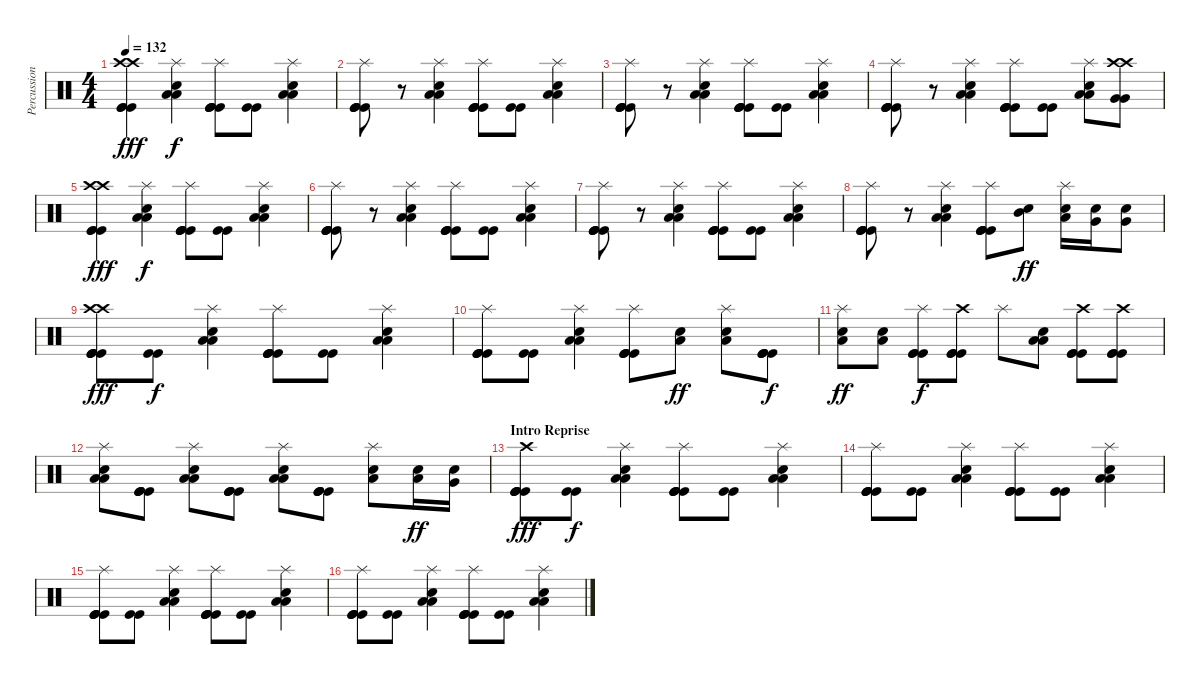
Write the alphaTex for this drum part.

\track ("Percussion" "Percussion") {instrument percussion}
\staff {score}
\articulation defaults
\ts (4 4)
\tempo 132
\clef neutral
\ks c
("Crash high (hit)" "Crash high (hit)" "Kick (hit)" "Kick (hit)" "Kick (hit)").4{dy fff} ("Splash (hit)" "Low Tom (hit)" "Low Tom (hit)" "Electric Snare (hit)").4{dy f} ("Splash (hit)" "Kick (hit)" "Kick (hit)" "Kick (hit)" "Kick (hit)").8 ("Kick (hit)" "Kick (hit)").8 ("Splash (hit)" "Low Tom (hit)" "Low Tom (hit)" "Electric Snare (hit)").4 |
("Splash (hit)" "Kick (hit)" "Kick (hit)" "Kick (hit)" "Kick (hit)").8 r.8 ("Splash (hit)" "Low Tom (hit)" "Low Tom (hit)" "Electric Snare (hit)").4 ("Splash (hit)" "Kick (hit)" "Kick (hit)" "Kick (hit)" "Kick (hit)").8 ("Kick (hit)" "Kick (hit)").8 ("Splash (hit)" "Low Tom (hit)" "Low Tom (hit)" "Electric Snare (hit)").4 |
("Splash (hit)" "Kick (hit)" "Kick (hit)" "Kick (hit)" "Kick (hit)").8 r.8 ("Splash (hit)" "Low Tom (hit)" "Low Tom (hit)" "Electric Snare (hit)").4 ("Splash (hit)" "Kick (hit)" "Kick (hit)" "Kick (hit)" "Kick (hit)").8 ("Kick (hit)" "Kick (hit)").8 ("Splash (hit)" "Low Tom (hit)" "Low Tom (hit)" "Electric Snare (hit)").4 |
("Splash (hit)" "Kick (hit)" "Kick (hit)" "Kick (hit)" "Kick (hit)").8 r.8 ("Splash (hit)" "Low Tom (hit)" "Low Tom (hit)" "Electric Snare (hit)").4 ("Splash (hit)" "Kick (hit)" "Kick (hit)" "Kick (hit)" "Kick (hit)").8 ("Kick (hit)" "Kick (hit)").8 ("Splash (hit)" "Low Tom (hit)" "Low Tom (hit)" "Electric Snare (hit)").8 ("Crash high (hit)" "Crash high (hit)" "Very Low Tom (hit)" "Very Low Tom (hit)").8 |
("Crash high (hit)" "Crash high (hit)" "Kick (hit)" "Kick (hit)" "Kick (hit)").4{dy fff} ("Splash (hit)" "Low Tom (hit)" "Low Tom (hit)" "Electric Snare (hit)").4{dy f} ("Splash (hit)" "Kick (hit)" "Kick (hit)" "Kick (hit)" "Kick (hit)").8 ("Kick (hit)" "Kick (hit)").8 ("Splash (hit)" "Low Tom (hit)" "Low Tom (hit)" "Electric Snare (hit)").4 |
("Splash (hit)" "Kick (hit)" "Kick (hit)" "Kick (hit)" "Kick (hit)").8 r.8 ("Splash (hit)" "Low Tom (hit)" "Low Tom (hit)" "Electric Snare (hit)").4 ("Splash (hit)" "Kick (hit)" "Kick (hit)" "Kick (hit)" "Kick (hit)").8 ("Kick (hit)" "Kick (hit)").8 ("Splash (hit)" "Low Tom (hit)" "Low Tom (hit)" "Electric Snare (hit)").4 |
("Splash (hit)" "Kick (hit)" "Kick (hit)" "Kick (hit)" "Kick (hit)").8 r.8 ("Splash (hit)" "Low Tom (hit)" "Low Tom (hit)" "Electric Snare (hit)").4 ("Splash (hit)" "Kick (hit)" "Kick (hit)" "Kick (hit)" "Kick (hit)").8 ("Kick (hit)" "Kick (hit)").8 ("Splash (hit)" "Low Tom (hit)" "Low Tom (hit)" "Electric Snare (hit)").4 |
("Splash (hit)" "Kick (hit)" "Kick (hit)" "Kick (hit)" "Kick (hit)").8 r.8 ("Splash (hit)" "Low Tom (hit)" "Low Tom (hit)" "Electric Snare (hit)").4 ("Splash (hit)" "Kick (hit)" "Kick (hit)" "Kick (hit)" "Kick (hit)").8 ("Mid Tom (hit)" "Electric Snare (hit)").8{dy ff} ("Splash (hit)" "Low Tom (hit)" "Electric Snare (hit)").16 ("Very Low Tom (hit)" "Electric Snare (hit)").16 ("Very Low Tom (hit)" "Electric Snare (hit)").8 |
("Crash high (hit)" "Crash high (hit)" "Kick (hit)" "Kick (hit)" "Kick (hit)" "Kick (hit)").8{dy fff} ("Kick (hit)" "Kick (hit)").8{dy f} ("Splash (hit)" "Low Tom (hit)" "Low Tom (hit)" "Electric Snare (hit)").4 ("Splash (hit)" "Kick (hit)" "Kick (hit)" "Kick (hit)" "Kick (hit)").8 ("Kick (hit)" "Kick (hit)").8 ("Splash (hit)" "Low Tom (hit)" "Low Tom (hit)" "Electric Snare (hit)").4 |
("Splash (hit)" "Kick (hit)" "Kick (hit)" "Kick (hit)" "Kick (hit)").8 ("Kick (hit)" "Kick (hit)").8 ("Splash (hit)" "Low Tom (hit)" "Low Tom (hit)" "Electric Snare (hit)").4 ("Splash (hit)" "Kick (hit)" "Kick (hit)" "Kick (hit)" "Kick (hit)").8 ("Low Tom (hit)" "Electric Snare (hit)").8{dy ff} ("Splash (hit)" "Low Tom (hit)" "Electric Snare (hit)").8 ("Kick (hit)" "Kick (hit)" "Kick (hit)" "Kick (hit)").8{dy f} |
("Splash (hit)" "Low Tom (hit)" "Electric Snare (hit)").8{dy ff} ("Low Tom (hit)" "Electric Snare (hit)").8 ("Splash (hit)" "Kick (hit)" "Kick (hit)" "Kick (hit)").8{dy f} ("Crash high (hit)" "Kick (hit)" "Kick (hit)" "Kick (hit)").8 "Splash (hit)".8 ("Low Tom (hit)" "Low Tom (hit)" "Electric Snare (hit)").8 ("Crash high (hit)" "Kick (hit)" "Kick (hit)" "Kick (hit)").8 ("Crash high (hit)" "Kick (hit)" "Kick (hit)" "Kick (hit)").8 |
("Splash (hit)" "Low Tom (hit)" "Low Tom (hit)" "Electric Snare (hit)").8 ("Kick (hit)" "Kick (hit)" "Kick (hit)" "Kick (hit)").8 ("Splash (hit)" "Low Tom (hit)" "Low Tom (hit)" "Electric Snare (hit)").8 ("Kick (hit)" "Kick (hit)" "Kick (hit)" "Kick (hit)").8 ("Splash (hit)" "Low Tom (hit)" "Low Tom (hit)" "Electric Snare (hit)").8 ("Kick (hit)" "Kick (hit)" "Kick (hit)" "Kick (hit)").8 ("Splash (hit)" "Low Tom (hit)" "Electric Snare (hit)").8 ("Low Tom (hit)" "Electric Snare (hit)").16{dy ff} ("Very Low Tom (hit)" "Electric Snare (hit)").16 |
\section ("" "Intro Reprise")
("Crash high (hit)" "Kick (hit)" "Kick (hit)" "Kick (hit)" "Kick (hit)").8{dy fff} ("Kick (hit)" "Kick (hit)").8{dy f} ("Splash (hit)" "Low Tom (hit)" "Low Tom (hit)" "Electric Snare (hit)").4 ("Splash (hit)" "Kick (hit)" "Kick (hit)" "Kick (hit)" "Kick (hit)").8 ("Kick (hit)" "Kick (hit)").8 ("Splash (hit)" "Low Tom (hit)" "Low Tom (hit)" "Electric Snare (hit)").4 |
("Splash (hit)" "Kick (hit)" "Kick (hit)" "Kick (hit)" "Kick (hit)").8 ("Kick (hit)" "Kick (hit)").8 ("Splash (hit)" "Low Tom (hit)" "Low Tom (hit)" "Electric Snare (hit)").4 ("Splash (hit)" "Kick (hit)" "Kick (hit)" "Kick (hit)" "Kick (hit)").8 ("Kick (hit)" "Kick (hit)").8 ("Splash (hit)" "Low Tom (hit)" "Low Tom (hit)" "Electric Snare (hit)").4 |
("Splash (hit)" "Kick (hit)" "Kick (hit)" "Kick (hit)" "Kick (hit)").8 ("Kick (hit)" "Kick (hit)").8 ("Splash (hit)" "Low Tom (hit)" "Low Tom (hit)" "Electric Snare (hit)").4 ("Splash (hit)" "Kick (hit)" "Kick (hit)" "Kick (hit)" "Kick (hit)").8 ("Kick (hit)" "Kick (hit)").8 ("Splash (hit)" "Low Tom (hit)" "Low Tom (hit)" "Electric Snare (hit)").4 |
("Splash (hit)" "Kick (hit)" "Kick (hit)" "Kick (hit)" "Kick (hit)").8 ("Kick (hit)" "Kick (hit)").8 ("Splash (hit)" "Low Tom (hit)" "Low Tom (hit)" "Electric Snare (hit)").4 ("Splash (hit)" "Kick (hit)" "Kick (hit)" "Kick (hit)" "Kick (hit)").8 ("Kick (hit)" "Kick (hit)").8 ("Splash (hit)" "Low Tom (hit)" "Low Tom (hit)" "Electric Snare (hit)").4
